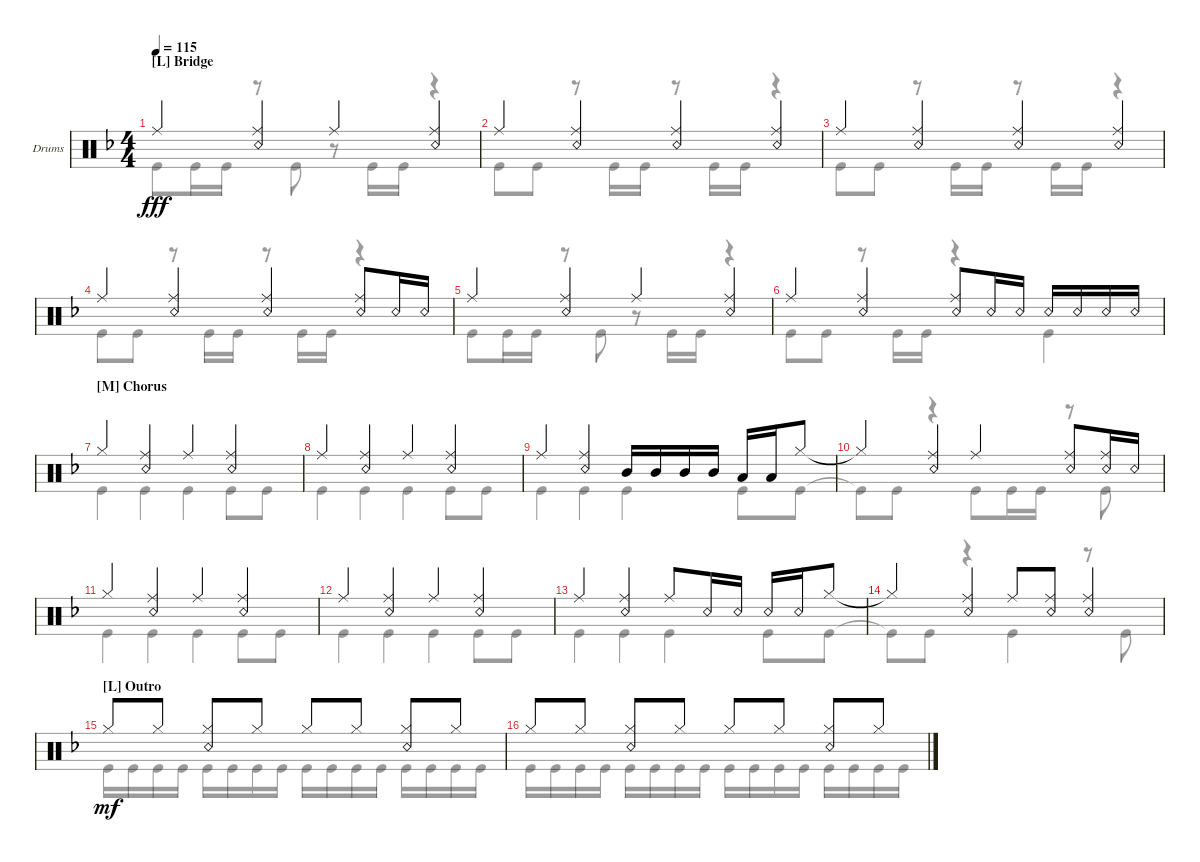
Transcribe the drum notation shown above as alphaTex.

\defaultSystemsLayout 4
\bracketExtendMode groupsimilarinstruments
\firstSystemTrackNameOrientation horizontal
\otherSystemsTrackNameOrientation horizontal
\track ("Randy Castillo" "Drums") {instrument percussion}
\staff {score}
\articulation defaults
\voice
\ts (4 4)
\section ("L" "Bridge")
\tempo 115
\clef neutral
\ks f "Ride (middle)".4{dy fff}
("Ride (middle)" "Snare (rim shot)").4 "Ride (middle)".4 ("Ride (middle)" "Snare (rim shot)").4 |
"Ride (middle)".4 ("Ride (middle)" "Snare (rim shot)").4 ("Ride (middle)" "Snare (rim shot)").4 ("Ride (middle)" "Snare (rim shot)").4 |
"Ride (middle)".4 ("Ride (middle)" "Snare (rim shot)").4 ("Ride (middle)" "Snare (rim shot)").4 ("Ride (middle)" "Snare (rim shot)").4 |
"Ride (middle)".4 ("Ride (middle)" "Snare (rim shot)").4 ("Ride (middle)" "Snare (rim shot)").4 ("Ride (middle)" "Snare (rim shot)").8 "Snare (rim shot)".16 "Snare (rim shot)".16 |
"Ride (middle)".4 ("Ride (middle)" "Snare (rim shot)").4 "Ride (middle)".4 ("Ride (middle)" "Snare (rim shot)").4 |
"Ride (middle)".4 ("Ride (middle)" "Snare (rim shot)").4 ("Snare (rim shot)" "Ride (middle)").8 "Snare (rim shot)".16 "Snare (rim shot)".16 "Snare (rim shot)".16 "Snare (rim shot)".16 "Snare (rim shot)".16 "Snare (rim shot)".16 |
\section ("M" "Chorus")
"Hi-Hat (closed)".4 ("Ride (middle)" "Snare (rim shot)").4 "Ride (middle)".4 ("Ride (middle)" "Snare (rim shot)").4 |
"Ride (middle)".4 ("Ride (middle)" "Snare (rim shot)").4 "Ride (middle)".4 ("Ride (middle)" "Snare (rim shot)").4 |
"Ride (middle)".4 ("Ride (middle)" "Snare (rim shot)").4 "Mid Tom (hit)".16 "Mid Tom (hit)".16 "Mid Tom (hit)".16 "Mid Tom (hit)".16 "Low Tom (hit)".16 "Low Tom (hit)".16 "Hi-Hat (closed)".8 |
"Hi-Hat (closed)"{t}.4 ("Ride (middle)" "Snare (rim shot)").4 "Ride (middle)".4 ("Ride (middle)" "Snare (rim shot)").8 ("Ride (middle)" "Snare (rim shot)").16 "Snare (rim shot)".16 |
"Hi-Hat (closed)".4 ("Ride (middle)" "Snare (rim shot)").4 "Ride (middle)".4 ("Ride (middle)" "Snare (rim shot)").4 |
"Ride (middle)".4 ("Ride (middle)" "Snare (rim shot)").4 "Ride (middle)".4 ("Ride (middle)" "Snare (rim shot)").4 |
"Ride (middle)".4 ("Ride (middle)" "Snare (rim shot)").4 "Ride (middle)".8 "Snare (rim shot)".16 "Snare (rim shot)".16 "Snare (rim shot)".16 "Snare (rim shot)".16 "Hi-Hat (closed)".8 |
"Hi-Hat (closed)"{t}.4 ("Ride (middle)" "Snare (rim shot)").4 "Ride (middle)".8 ("Ride (middle)" "Snare (rim shot)").8 ("Ride (middle)" "Snare (rim shot)").4 |
\section ("L" "Outro")
"Hi-Hat (closed)".8{dy mf} "Hi-Hat (closed)".8 ("Hi-Hat (closed)" "Snare (rim shot)").8 "Hi-Hat (closed)".8 "Hi-Hat (closed)".8 "Hi-Hat (closed)".8 ("Hi-Hat (closed)" "Snare (rim shot)").8 "Hi-Hat (closed)".8 |
"Hi-Hat (closed)".8 "Hi-Hat (closed)".8 ("Hi-Hat (closed)" "Snare (rim shot)").8 "Hi-Hat (closed)".8 "Hi-Hat (closed)".8 "Hi-Hat (closed)".8 ("Hi-Hat (closed)" "Snare (rim shot)").8 "Hi-Hat (closed)".8
\voice
\clef neutral
\ottava regular
\simile none
\ks f "Kick (hit)".8{dy fff} "Kick (hit)".16 "Kick (hit)".16
r.8 "Kick (hit)".8 r.8 "Kick (hit)".16 "Kick (hit)".16 r.4 |
"Kick (hit)".8 "Kick (hit)".8 r.8 "Kick (hit)".16 "Kick (hit)".16 r.8 "Kick (hit)".16 "Kick (hit)".16 r.4 |
"Kick (hit)".8 "Kick (hit)".8 r.8 "Kick (hit)".16 "Kick (hit)".16 r.8 "Kick (hit)".16 "Kick (hit)".16 r.4 |
"Kick (hit)".8 "Kick (hit)".8 r.8 "Kick (hit)".16 "Kick (hit)".16 r.8 "Kick (hit)".16 "Kick (hit)".16 r.4 |
"Kick (hit)".8 "Kick (hit)".16 "Kick (hit)".16 r.8 "Kick (hit)".8 r.8 "Kick (hit)".16 "Kick (hit)".16 r.4 |
"Kick (hit)".8 "Kick (hit)".8 r.8 "Kick (hit)".16 "Kick (hit)".16 r.4 "Kick (hit)".4 |
"Kick (hit)".4 "Kick (hit)".4 "Kick (hit)".4 "Kick (hit)".8 "Kick (hit)".8 |
"Kick (hit)".4 "Kick (hit)".4 "Kick (hit)".4 "Kick (hit)".8 "Kick (hit)".8 |
"Kick (hit)".4 "Kick (hit)".4 "Kick (hit)".4 "Kick (hit)".8 "Kick (hit)".8 |
"Kick (hit)"{t}.8 "Kick (hit)".8 r.4 "Kick (hit)".8 "Kick (hit)".16 "Kick (hit)".16 r.8 "Kick (hit)".8 |
"Kick (hit)".4 "Kick (hit)".4 "Kick (hit)".4 "Kick (hit)".8 "Kick (hit)".8 |
"Kick (hit)".4 "Kick (hit)".4 "Kick (hit)".4 "Kick (hit)".8 "Kick (hit)".8 |
"Kick (hit)".4 "Kick (hit)".4 "Kick (hit)".4 "Kick (hit)".8 "Kick (hit)".8 |
"Kick (hit)"{t}.8 "Kick (hit)".8 r.4 "Kick (hit)".4 r.8 "Kick (hit)".8 |
"Kick (hit)".16{dy mf} "Kick (hit)".16 "Kick (hit)".16 "Kick (hit)".16 "Kick (hit)".16 "Kick (hit)".16 "Kick (hit)".16 "Kick (hit)".16 "Kick (hit)".16 "Kick (hit)".16 "Kick (hit)".16 "Kick (hit)".16 "Kick (hit)".16 "Kick (hit)".16 "Kick (hit)".16 "Kick (hit)".16 |
"Kick (hit)".16 "Kick (hit)".16 "Kick (hit)".16 "Kick (hit)".16 "Kick (hit)".16 "Kick (hit)".16 "Kick (hit)".16 "Kick (hit)".16 "Kick (hit)".16 "Kick (hit)".16 "Kick (hit)".16 "Kick (hit)".16 "Kick (hit)".16 "Kick (hit)".16 "Kick (hit)".16 "Kick (hit)".16
